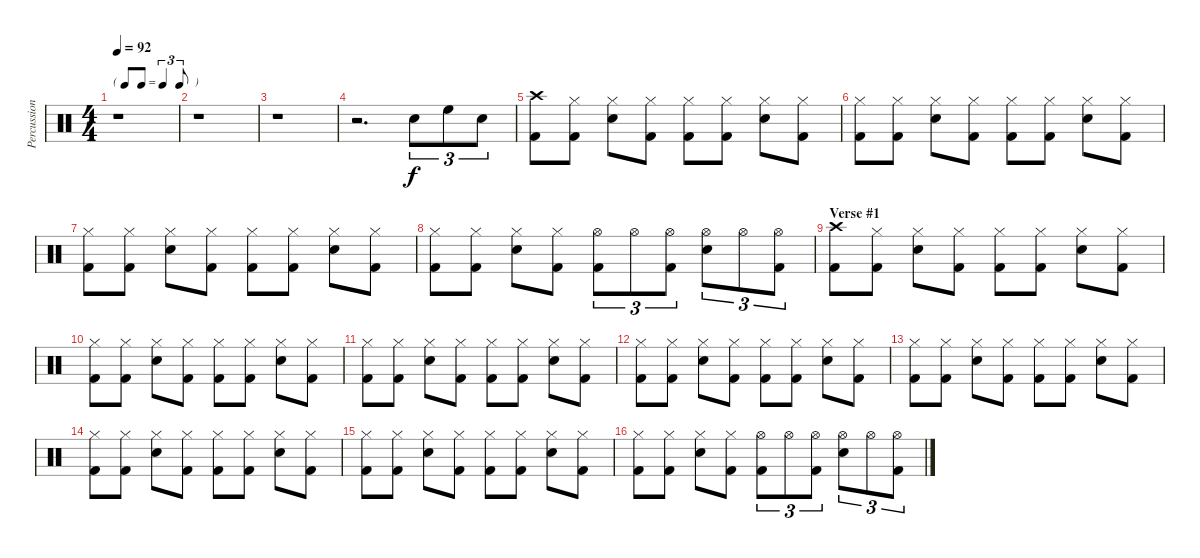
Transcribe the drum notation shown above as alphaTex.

\track ("Percussion" "Percussion") {instrument percussion}
\staff {score}
\articulation defaults
\ts (4 4)
\tf triplet8th
\tempo 92
\clef neutral
\ks c
r.1{dy f} |
r.1 |
r.1 |
r.2{d} "Electric Snare (hit)".8{tu (3 2)} "High Floor Tom (hit)".8{tu (3 2)} "Electric Snare (hit)".8{tu (3 2)} |
("Crash high (hit)" "Kick (hit) 2").8 ("Hi-Hat (closed)" "Kick (hit) 2").8 ("Hi-Hat (closed)" "Electric Snare (hit)").8 ("Hi-Hat (closed)" "Kick (hit) 2").8 ("Hi-Hat (closed)" "Kick (hit) 2").8 ("Hi-Hat (closed)" "Kick (hit) 2").8 ("Hi-Hat (closed)" "Electric Snare (hit)").8 ("Hi-Hat (closed)" "Kick (hit) 2").8 |
("Hi-Hat (closed)" "Kick (hit) 2").8 ("Hi-Hat (closed)" "Kick (hit) 2").8 ("Hi-Hat (closed)" "Electric Snare (hit)").8 ("Hi-Hat (closed)" "Kick (hit) 2").8 ("Hi-Hat (closed)" "Kick (hit) 2").8 ("Hi-Hat (closed)" "Kick (hit) 2").8 ("Hi-Hat (closed)" "Electric Snare (hit)").8 ("Hi-Hat (closed)" "Kick (hit) 2").8 |
("Hi-Hat (closed)" "Kick (hit) 2").8 ("Hi-Hat (closed)" "Kick (hit) 2").8 ("Hi-Hat (closed)" "Electric Snare (hit)").8 ("Hi-Hat (closed)" "Kick (hit) 2").8 ("Hi-Hat (closed)" "Kick (hit) 2").8 ("Hi-Hat (closed)" "Kick (hit) 2").8 ("Hi-Hat (closed)" "Electric Snare (hit)").8 ("Hi-Hat (closed)" "Kick (hit) 2").8 |
("Hi-Hat (closed)" "Kick (hit) 2").8 ("Hi-Hat (closed)" "Kick (hit) 2").8 ("Hi-Hat (closed)" "Electric Snare (hit)").8 ("Hi-Hat (closed)" "Kick (hit) 2").8 ("Hi-Hat (open)" "Kick (hit) 2").8{tu (3 2)} "Hi-Hat (open)".8{tu (3 2)} ("Hi-Hat (open)" "Kick (hit) 2").8{tu (3 2)} ("Hi-Hat (open)" "Electric Snare (hit)").8{tu (3 2)} "Hi-Hat (open)".8{tu (3 2)} ("Hi-Hat (open)" "Kick (hit) 2").8{tu (3 2)} |
\section ("" "Verse #1")
("Crash high (hit)" "Kick (hit) 2").8 ("Hi-Hat (closed)" "Kick (hit) 2").8 ("Hi-Hat (closed)" "Electric Snare (hit)").8 ("Hi-Hat (closed)" "Kick (hit) 2").8 ("Hi-Hat (closed)" "Kick (hit) 2").8 ("Hi-Hat (closed)" "Kick (hit) 2").8 ("Hi-Hat (closed)" "Electric Snare (hit)").8 ("Hi-Hat (closed)" "Kick (hit) 2").8 |
("Hi-Hat (closed)" "Kick (hit) 2").8 ("Hi-Hat (closed)" "Kick (hit) 2").8 ("Hi-Hat (closed)" "Electric Snare (hit)").8 ("Hi-Hat (closed)" "Kick (hit) 2").8 ("Hi-Hat (closed)" "Kick (hit) 2").8 ("Hi-Hat (closed)" "Kick (hit) 2").8 ("Hi-Hat (closed)" "Electric Snare (hit)").8 ("Hi-Hat (closed)" "Kick (hit) 2").8 |
("Hi-Hat (closed)" "Kick (hit) 2").8 ("Hi-Hat (closed)" "Kick (hit) 2").8 ("Hi-Hat (closed)" "Electric Snare (hit)").8 ("Hi-Hat (closed)" "Kick (hit) 2").8 ("Hi-Hat (closed)" "Kick (hit) 2").8 ("Hi-Hat (closed)" "Kick (hit) 2").8 ("Hi-Hat (closed)" "Electric Snare (hit)").8 ("Hi-Hat (closed)" "Kick (hit) 2").8 |
("Hi-Hat (closed)" "Kick (hit) 2").8 ("Hi-Hat (closed)" "Kick (hit) 2").8 ("Hi-Hat (closed)" "Electric Snare (hit)").8 ("Hi-Hat (closed)" "Kick (hit) 2").8 ("Hi-Hat (closed)" "Kick (hit) 2").8 ("Hi-Hat (closed)" "Kick (hit) 2").8 ("Hi-Hat (closed)" "Electric Snare (hit)").8 ("Hi-Hat (closed)" "Kick (hit) 2").8 |
("Hi-Hat (closed)" "Kick (hit) 2").8 ("Hi-Hat (closed)" "Kick (hit) 2").8 ("Hi-Hat (closed)" "Electric Snare (hit)").8 ("Hi-Hat (closed)" "Kick (hit) 2").8 ("Hi-Hat (closed)" "Kick (hit) 2").8 ("Hi-Hat (closed)" "Kick (hit) 2").8 ("Hi-Hat (closed)" "Electric Snare (hit)").8 ("Hi-Hat (closed)" "Kick (hit) 2").8 |
("Hi-Hat (closed)" "Kick (hit) 2").8 ("Hi-Hat (closed)" "Kick (hit) 2").8 ("Hi-Hat (closed)" "Electric Snare (hit)").8 ("Hi-Hat (closed)" "Kick (hit) 2").8 ("Hi-Hat (closed)" "Kick (hit) 2").8 ("Hi-Hat (closed)" "Kick (hit) 2").8 ("Hi-Hat (closed)" "Electric Snare (hit)").8 ("Hi-Hat (closed)" "Kick (hit) 2").8 |
("Hi-Hat (closed)" "Kick (hit) 2").8 ("Hi-Hat (closed)" "Kick (hit) 2").8 ("Hi-Hat (closed)" "Electric Snare (hit)").8 ("Hi-Hat (closed)" "Kick (hit) 2").8 ("Hi-Hat (closed)" "Kick (hit) 2").8 ("Hi-Hat (closed)" "Kick (hit) 2").8 ("Hi-Hat (closed)" "Electric Snare (hit)").8 ("Hi-Hat (closed)" "Kick (hit) 2").8 |
("Hi-Hat (closed)" "Kick (hit) 2").8 ("Hi-Hat (closed)" "Kick (hit) 2").8 ("Hi-Hat (closed)" "Electric Snare (hit)").8 ("Hi-Hat (closed)" "Kick (hit) 2").8 ("Hi-Hat (open)" "Kick (hit) 2").8{tu (3 2)} "Hi-Hat (open)".8{tu (3 2)} ("Hi-Hat (open)" "Kick (hit) 2").8{tu (3 2)} ("Hi-Hat (open)" "Electric Snare (hit)").8{tu (3 2)} "Hi-Hat (open)".8{tu (3 2)} ("Hi-Hat (open)" "Kick (hit) 2").8{tu (3 2)}
